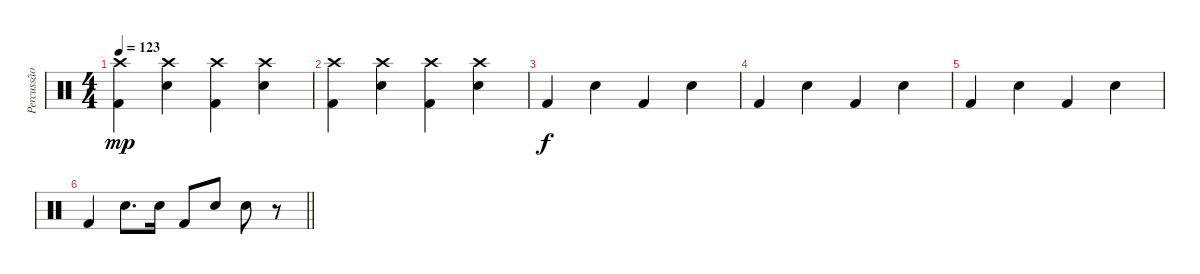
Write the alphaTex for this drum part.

\track ("Percussão" "Percussão") {instrument percussion}
\staff {score}
\articulation defaults
\ts (4 4)
\tempo 123
\clef neutral
\ks c
("Crash high (hit)" "Kick (hit) 2").4{dy mp} ("Crash high (hit)" "Snare (hit) 2").4 ("Crash high (hit)" "Kick (hit) 2").4 ("Crash high (hit)" "Snare (hit) 2").4 |
("Crash high (hit)" "Kick (hit) 2").4 ("Crash high (hit)" "Snare (hit) 2").4 ("Crash high (hit)" "Kick (hit) 2").4 ("Crash high (hit)" "Snare (hit) 2").4 |
"Kick (hit) 2".4{dy f} "Snare (hit) 2".4 "Kick (hit) 2".4 "Snare (hit) 2".4 |
"Kick (hit) 2".4 "Snare (hit) 2".4 "Kick (hit) 2".4 "Snare (hit) 2".4 |
"Kick (hit) 2".4 "Snare (hit) 2".4 "Kick (hit) 2".4 "Snare (hit) 2".4 |
\barLineRight lightlight "Kick (hit) 2".4 "Snare (hit) 2".8{d} "Snare (hit) 2".16 "Kick (hit) 2".8 "Snare (hit) 2".8 "Snare (hit) 2".8
r.8
